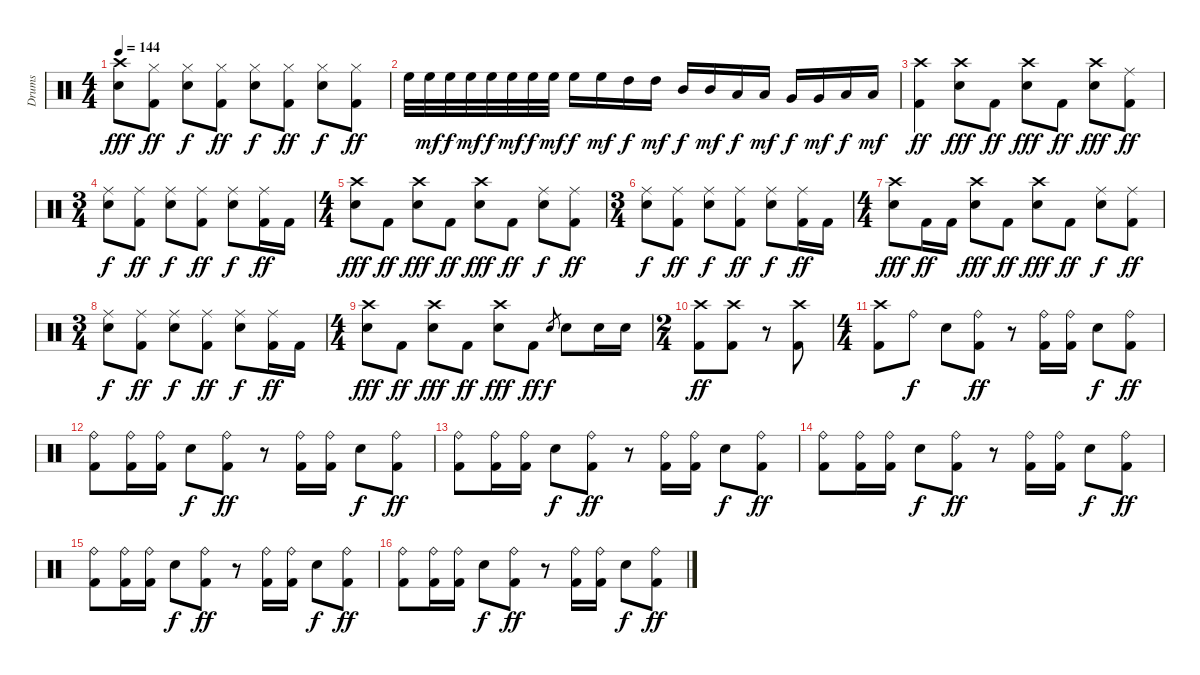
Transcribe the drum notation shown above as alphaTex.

\track ("Drums" "Drums") {instrument percussion}
\staff {score}
\articulation defaults
\ts (4 4)
\tempo 144
\clef neutral
\ks c
("Crash high (hit)" "Snare (hit) 2").8{dy fff} ("Hi-Hat (closed)" "Kick (hit) 2").8{dy ff} ("Hi-Hat (closed)" "Snare (hit) 2").8{dy f} ("Hi-Hat (closed)" "Kick (hit) 2").8{dy ff} ("Hi-Hat (closed)" "Snare (hit) 2").8{dy f} ("Hi-Hat (closed)" "Kick (hit) 2").8{dy ff} ("Hi-Hat (closed)" "Snare (hit) 2").8{dy f} ("Hi-Hat (closed)" "Kick (hit) 2").8{dy ff} |
"High Floor Tom (hit)".32 "High Floor Tom (hit)".32{dy mf} "High Floor Tom (hit)".32{dy f} "High Floor Tom (hit)".32{dy mf} "High Floor Tom (hit)".32{dy f} "High Floor Tom (hit)".32{dy mf} "High Floor Tom (hit)".32{dy f} "High Floor Tom (hit)".32{dy mf} "High Floor Tom (hit)".16{dy f} "High Floor Tom (hit)".16{dy mf} "High Tom (hit)".16{dy f} "High Tom (hit)".16{dy mf} "Mid Tom (hit)".16{dy f} "Mid Tom (hit)".16{dy mf} "Low Tom (hit)".16{dy f} "Low Tom (hit)".16{dy mf} "Very Low Tom (hit)".16{dy f} "Very Low Tom (hit)".16{dy mf} "Low Floor Tom (hit)".16{dy f} "Low Floor Tom (hit)".16{dy mf} |
("Crash high (hit)" "Kick (hit) 2").4{dy ff} ("Crash high (hit)" "Snare (hit) 2").8{dy fff} "Kick (hit) 2".8{dy ff} ("Crash high (hit)" "Snare (hit) 2").8{dy fff} "Kick (hit) 2".8{dy ff} ("Crash high (hit)" "Snare (hit) 2").8{dy fff} ("Ride (middle)" "Kick (hit) 2").8{dy ff} |
\ts (3 4)
("Ride (middle)" "Snare (hit) 2").8{dy f} ("Ride (middle)" "Kick (hit) 2").8{dy ff} ("Ride (middle)" "Snare (hit) 2").8{dy f} ("Ride (middle)" "Kick (hit) 2").8{dy ff} ("Ride (middle)" "Snare (hit) 2").8{dy f} ("Ride (middle)" "Kick (hit) 2").16{dy ff} "Kick (hit) 2".16 |
\ts (4 4)
("Crash high (hit)" "Snare (hit) 2").8{dy fff} "Kick (hit) 2".8{dy ff} ("Crash high (hit)" "Snare (hit) 2").8{dy fff} "Kick (hit) 2".8{dy ff} ("Crash high (hit)" "Snare (hit) 2").8{dy fff} "Kick (hit) 2".8{dy ff} ("Ride (middle)" "Snare (hit) 2").8{dy f} ("Ride (middle)" "Kick (hit) 2").8{dy ff} |
\ts (3 4)
("Ride (middle)" "Snare (hit) 2").8{dy f} ("Ride (middle)" "Kick (hit) 2").8{dy ff} ("Ride (middle)" "Snare (hit) 2").8{dy f} ("Ride (middle)" "Kick (hit) 2").8{dy ff} ("Ride (middle)" "Snare (hit) 2").8{dy f} ("Ride (middle)" "Kick (hit) 2").16{dy ff} "Kick (hit) 2".16 |
\ts (4 4)
("Crash high (hit)" "Snare (hit) 2").8{dy fff} "Kick (hit) 2".16{dy ff} "Kick (hit) 2".16 ("Crash high (hit)" "Snare (hit) 2").8{dy fff} "Kick (hit) 2".8{dy ff} ("Crash high (hit)" "Snare (hit) 2").8{dy fff} "Kick (hit) 2".8{dy ff} ("Ride (middle)" "Snare (hit) 2").8{dy f} ("Ride (middle)" "Kick (hit) 2").8{dy ff} |
\ts (3 4)
("Ride (middle)" "Snare (hit) 2").8{dy f} ("Ride (middle)" "Kick (hit) 2").8{dy ff} ("Ride (middle)" "Snare (hit) 2").8{dy f} ("Ride (middle)" "Kick (hit) 2").8{dy ff} ("Ride (middle)" "Snare (hit) 2").8{dy f} ("Ride (middle)" "Kick (hit) 2").16{dy ff} "Kick (hit) 2".16 |
\ts (4 4)
("Crash high (hit)" "Snare (hit) 2").8{dy fff} "Kick (hit) 2".8{dy ff} ("Crash high (hit)" "Snare (hit) 2").8{dy fff} "Kick (hit) 2".8{dy ff} ("Crash high (hit)" "Snare (hit) 2").8{dy fff} "Kick (hit) 2".8{dy ff} "Snare (hit) 2".8{gr dy f} "Snare (hit) 2".8 "Snare (hit) 2".16 "Snare (hit) 2".16 |
\ts (2 4)
("Crash high (hit)" "Kick (hit) 2").8{dy ff} ("Crash high (hit)" "Kick (hit) 2").8 r.8 ("Crash high (hit)" "Kick (hit) 2").8 |
\ts (4 4)
("Crash high (hit)" "Kick (hit) 2").8 "Ride (bell)".8{dy f} "Snare (hit) 2".8 ("Ride (bell)" "Kick (hit) 2").8{dy ff} r.8 ("Ride (bell)" "Kick (hit) 2").16 ("Ride (bell)" "Kick (hit) 2").16 "Snare (hit) 2".8{dy f} ("Ride (bell)" "Kick (hit) 2").8{dy ff} |
("Ride (bell)" "Kick (hit) 2").8 ("Ride (bell)" "Kick (hit) 2").16 ("Ride (bell)" "Kick (hit) 2").16 "Snare (hit) 2".8{dy f} ("Ride (bell)" "Kick (hit) 2").8{dy ff} r.8 ("Ride (bell)" "Kick (hit) 2").16 ("Ride (bell)" "Kick (hit) 2").16 "Snare (hit) 2".8{dy f} ("Ride (bell)" "Kick (hit) 2").8{dy ff} |
("Ride (bell)" "Kick (hit) 2").8 ("Ride (bell)" "Kick (hit) 2").16 ("Ride (bell)" "Kick (hit) 2").16 "Snare (hit) 2".8{dy f} ("Ride (bell)" "Kick (hit) 2").8{dy ff} r.8 ("Ride (bell)" "Kick (hit) 2").16 ("Ride (bell)" "Kick (hit) 2").16 "Snare (hit) 2".8{dy f} ("Ride (bell)" "Kick (hit) 2").8{dy ff} |
("Ride (bell)" "Kick (hit) 2").8 ("Ride (bell)" "Kick (hit) 2").16 ("Ride (bell)" "Kick (hit) 2").16 "Snare (hit) 2".8{dy f} ("Ride (bell)" "Kick (hit) 2").8{dy ff} r.8 ("Ride (bell)" "Kick (hit) 2").16 ("Ride (bell)" "Kick (hit) 2").16 "Snare (hit) 2".8{dy f} ("Ride (bell)" "Kick (hit) 2").8{dy ff} |
("Ride (bell)" "Kick (hit) 2").8 ("Ride (bell)" "Kick (hit) 2").16 ("Ride (bell)" "Kick (hit) 2").16 "Snare (hit) 2".8{dy f} ("Ride (bell)" "Kick (hit) 2").8{dy ff} r.8 ("Ride (bell)" "Kick (hit) 2").16 ("Ride (bell)" "Kick (hit) 2").16 "Snare (hit) 2".8{dy f} ("Ride (bell)" "Kick (hit) 2").8{dy ff} |
("Ride (bell)" "Kick (hit) 2").8 ("Ride (bell)" "Kick (hit) 2").16 ("Ride (bell)" "Kick (hit) 2").16 "Snare (hit) 2".8{dy f} ("Ride (bell)" "Kick (hit) 2").8{dy ff} r.8 ("Ride (bell)" "Kick (hit) 2").16 ("Ride (bell)" "Kick (hit) 2").16 "Snare (hit) 2".8{dy f} ("Ride (bell)" "Kick (hit) 2").8{dy ff}
